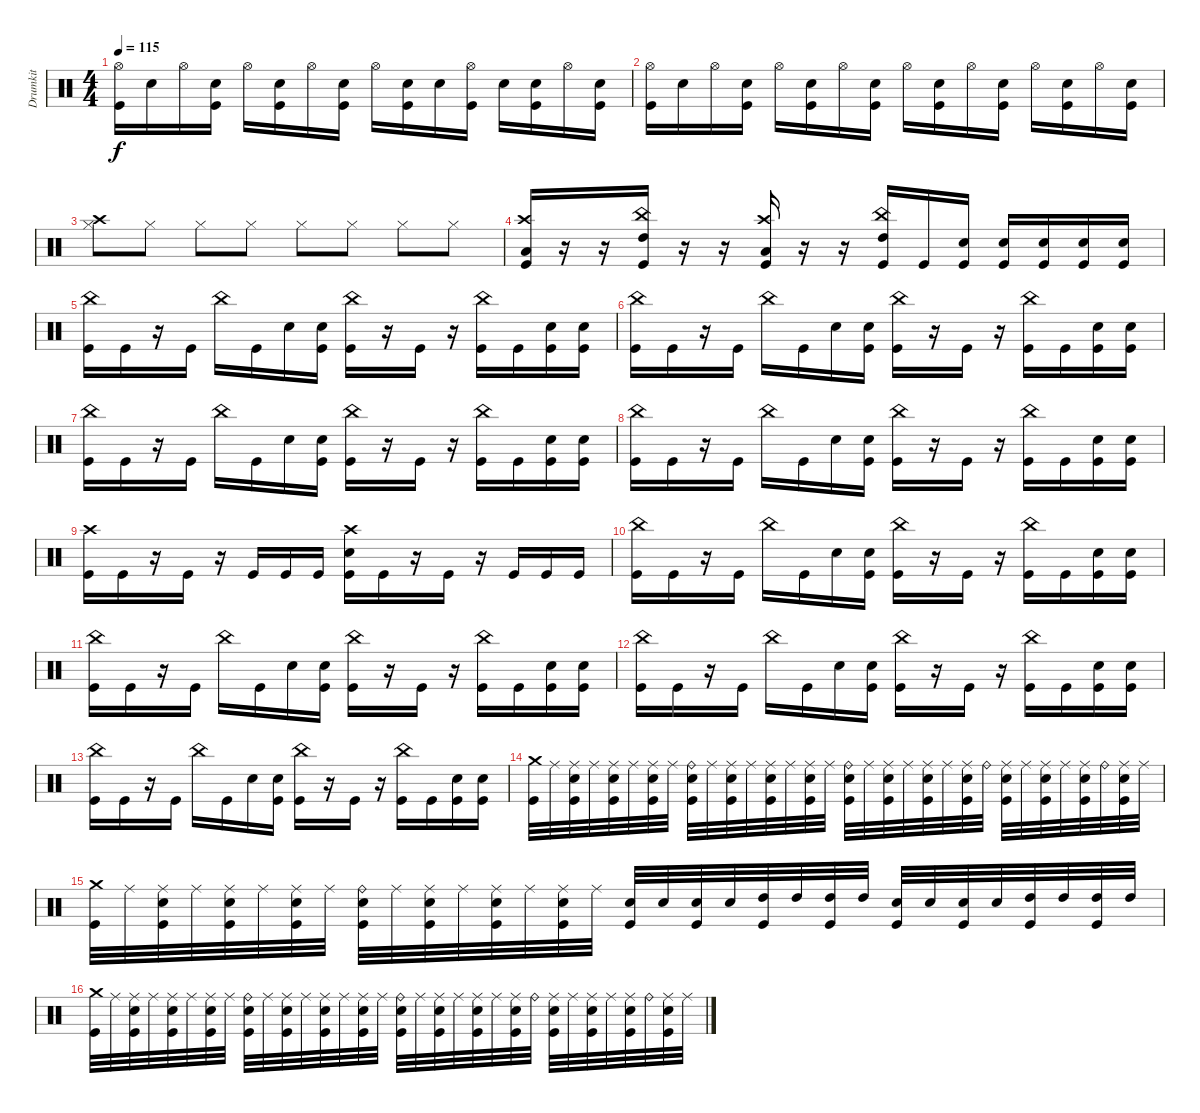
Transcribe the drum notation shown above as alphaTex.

\track ("Drumkit" "Drumkit") {instrument percussion}
\staff {score}
\articulation defaults
\ts (4 4)
\tempo 115
\clef neutral
\ks c
("Kick (hit)" "Hi-Hat (open)").16{dy f} "Snare (hit) 2".16 "Hi-Hat (open)".16 ("Kick (hit)" "Snare (hit) 2").16 "Hi-Hat (open)".16 ("Kick (hit)" "Snare (hit) 2").16 "Hi-Hat (open)".16 ("Kick (hit)" "Snare (hit) 2").16 "Hi-Hat (open)".16 ("Kick (hit)" "Snare (hit) 2").16 "Snare (hit) 2".16 ("Kick (hit)" "Hi-Hat (open)").16 "Snare (hit) 2".16 ("Kick (hit)" "Snare (hit) 2").16 "Hi-Hat (open)".16 ("Kick (hit)" "Snare (hit) 2").16 |
("Kick (hit)" "Hi-Hat (open)").16 "Snare (hit) 2".16 "Hi-Hat (open)".16 ("Kick (hit)" "Snare (hit) 2").16 "Hi-Hat (open)".16 ("Kick (hit)" "Snare (hit) 2").16 "Hi-Hat (open)".16 ("Kick (hit)" "Snare (hit) 2").16 "Hi-Hat (open)".16 ("Kick (hit)" "Snare (hit) 2").16 "Hi-Hat (open)".16 ("Kick (hit)" "Snare (hit) 2").16 "Hi-Hat (open)".16 ("Kick (hit)" "Snare (hit) 2").16 "Hi-Hat (open)".16 ("Kick (hit)" "Snare (hit) 2").16 |
("Hi-Hat (closed)" "Crash high (hit)").8 "Hi-Hat (closed)".8 "Hi-Hat (closed)".8 "Hi-Hat (closed)".8 "Hi-Hat (closed)".8 "Hi-Hat (closed)".8 "Hi-Hat (closed)".8 "Hi-Hat (closed)".8 |
("Kick (hit)" "Crash high (hit)" "Low Tom (hit)").16 r.16 r.16 ("Kick (hit)" "China (hit)" "High Tom (hit)").16 r.16 r.16 ("Kick (hit)" "Crash high (hit)" "Low Tom (hit)").16 r.16 r.16 ("Kick (hit)" "China (hit)" "High Tom (hit)").16 "Kick (hit)".16 ("Kick (hit)" "Snare (hit) 2").16 ("Kick (hit)" "Snare (hit) 2").16 ("Kick (hit)" "Snare (hit) 2").16 ("Kick (hit)" "Snare (hit) 2").16 ("Kick (hit)" "Snare (hit) 2").16 |
("Kick (hit)" "China (hit)").16 "Kick (hit)".16 r.16 "Kick (hit)".16 "China (hit)".16 "Kick (hit)".16 "Snare (hit) 2".16 ("Kick (hit)" "Snare (hit) 2").16 ("Kick (hit)" "China (hit)").16 r.16 "Kick (hit)".16 r.16 ("Kick (hit)" "China (hit)").16 "Kick (hit)".16 ("Kick (hit)" "Snare (hit) 2").16 ("Kick (hit)" "Snare (hit) 2").16 |
("Kick (hit)" "China (hit)").16 "Kick (hit)".16 r.16 "Kick (hit)".16 "China (hit)".16 "Kick (hit)".16 "Snare (hit) 2".16 ("Kick (hit)" "Snare (hit) 2").16 ("Kick (hit)" "China (hit)").16 r.16 "Kick (hit)".16 r.16 ("Kick (hit)" "China (hit)").16 "Kick (hit)".16 ("Kick (hit)" "Snare (hit) 2").16 ("Kick (hit)" "Snare (hit) 2").16 |
("Kick (hit)" "China (hit)").16 "Kick (hit)".16 r.16 "Kick (hit)".16 "China (hit)".16 "Kick (hit)".16 "Snare (hit) 2".16 ("Kick (hit)" "Snare (hit) 2").16 ("Kick (hit)" "China (hit)").16 r.16 "Kick (hit)".16 r.16 ("Kick (hit)" "China (hit)").16 "Kick (hit)".16 ("Kick (hit)" "Snare (hit) 2").16 ("Kick (hit)" "Snare (hit) 2").16 |
("Kick (hit)" "China (hit)").16 "Kick (hit)".16 r.16 "Kick (hit)".16 "China (hit)".16 "Kick (hit)".16 "Snare (hit) 2".16 ("Kick (hit)" "Snare (hit) 2").16 ("Kick (hit)" "China (hit)").16 r.16 "Kick (hit)".16 r.16 ("Kick (hit)" "China (hit)").16 "Kick (hit)".16 ("Kick (hit)" "Snare (hit) 2").16 ("Kick (hit)" "Snare (hit) 2").16 |
("Kick (hit)" "Crash high (hit)").16 "Kick (hit)".16 r.16 "Kick (hit)".16 r.16 "Kick (hit)".16 "Kick (hit)".16 "Kick (hit)".16 ("Kick (hit)" "Snare (hit) 2" "Crash high (hit)").16 "Kick (hit)".16 r.16 "Kick (hit)".16 r.16 "Kick (hit)".16 "Kick (hit)".16 "Kick (hit)".16 |
("Kick (hit)" "China (hit)").16 "Kick (hit)".16 r.16 "Kick (hit)".16 "China (hit)".16 "Kick (hit)".16 "Snare (hit) 2".16 ("Kick (hit)" "Snare (hit) 2").16 ("Kick (hit)" "China (hit)").16 r.16 "Kick (hit)".16 r.16 ("Kick (hit)" "China (hit)").16 "Kick (hit)".16 ("Kick (hit)" "Snare (hit) 2").16 ("Kick (hit)" "Snare (hit) 2").16 |
("Kick (hit)" "China (hit)").16 "Kick (hit)".16 r.16 "Kick (hit)".16 "China (hit)".16 "Kick (hit)".16 "Snare (hit) 2".16 ("Kick (hit)" "Snare (hit) 2").16 ("Kick (hit)" "China (hit)").16 r.16 "Kick (hit)".16 r.16 ("Kick (hit)" "China (hit)").16 "Kick (hit)".16 ("Kick (hit)" "Snare (hit) 2").16 ("Kick (hit)" "Snare (hit) 2").16 |
("Kick (hit)" "China (hit)").16 "Kick (hit)".16 r.16 "Kick (hit)".16 "China (hit)".16 "Kick (hit)".16 "Snare (hit) 2".16 ("Kick (hit)" "Snare (hit) 2").16 ("Kick (hit)" "China (hit)").16 r.16 "Kick (hit)".16 r.16 ("Kick (hit)" "China (hit)").16 "Kick (hit)".16 ("Kick (hit)" "Snare (hit) 2").16 ("Kick (hit)" "Snare (hit) 2").16 |
("Kick (hit)" "China (hit)").16 "Kick (hit)".16 r.16 "Kick (hit)".16 "China (hit)".16 "Kick (hit)".16 "Snare (hit) 2".16 ("Kick (hit)" "Snare (hit) 2").16 ("Kick (hit)" "China (hit)").16 r.16 "Kick (hit)".16 r.16 ("Kick (hit)" "China (hit)").16 "Kick (hit)".16 ("Kick (hit)" "Snare (hit) 2").16 ("Kick (hit)" "Snare (hit) 2").16 |
("Kick (hit)" "Crash medium (hit)").32 "Ride (middle)".32 ("Kick (hit)" "Snare (hit) 2" "Ride (middle)").32 "Ride (middle)".32 ("Kick (hit)" "Snare (hit) 2" "Ride (middle)").32 "Ride (middle)".32 ("Kick (hit)" "Snare (hit) 2" "Ride (middle)").32 "Ride (middle)".32 ("Kick (hit)" "Snare (hit) 2" "Ride (bell)").32 "Ride (middle)".32 ("Kick (hit)" "Snare (hit) 2" "Ride (middle)").32 "Ride (middle)".32 ("Kick (hit)" "Snare (hit) 2" "Ride (middle)").32 "Ride (middle)".32 ("Kick (hit)" "Snare (hit) 2" "Ride (middle)").32 "Ride (middle)".32 ("Kick (hit)" "Snare (hit) 2" "Ride (bell)").32 "Ride (middle)".32 ("Kick (hit)" "Snare (hit) 2" "Ride (middle)").32 "Ride (middle)".32 ("Kick (hit)" "Snare (hit) 2" "Ride (middle)").32 "Ride (middle)".32 ("Kick (hit)" "Snare (hit) 2" "Ride (middle)").32 "Ride (bell)".32 ("Kick (hit)" "Snare (hit) 2" "Ride (middle)").32 "Ride (middle)".32 ("Kick (hit)" "Snare (hit) 2" "Ride (middle)").32 "Ride (middle)".32 ("Kick (hit)" "Snare (hit) 2" "Ride (middle)").32 "Ride (bell)".32 ("Kick (hit)" "Snare (hit) 2" "Ride (middle)").32 "Ride (middle)".32 |
("Kick (hit)" "Crash medium (hit)").32 "Ride (middle)".32 ("Kick (hit)" "Snare (hit) 2" "Ride (middle)").32 "Ride (middle)".32 ("Kick (hit)" "Snare (hit) 2" "Ride (middle)").32 "Ride (middle)".32 ("Kick (hit)" "Snare (hit) 2" "Ride (middle)").32 "Ride (middle)".32 ("Kick (hit)" "Snare (hit) 2" "Ride (bell)").32 "Ride (middle)".32 ("Kick (hit)" "Snare (hit) 2" "Ride (middle)").32 "Ride (middle)".32 ("Kick (hit)" "Snare (hit) 2" "Ride (middle)").32 "Ride (middle)".32 ("Kick (hit)" "Snare (hit) 2" "Ride (middle)").32 "Ride (middle)".32 ("Kick (hit)" "Snare (hit) 2").32 "Snare (hit) 2".32 ("Kick (hit)" "Snare (hit) 2").32 "Snare (hit) 2".32 ("Kick (hit)" "High Tom (hit)").32 "High Tom (hit)".32 ("Kick (hit)" "High Tom (hit)").32 "High Tom (hit)".32 ("Kick (hit)" "Snare (hit) 2").32 "Snare (hit) 2".32 ("Kick (hit)" "Snare (hit) 2").32 "Snare (hit) 2".32 ("Kick (hit)" "High Tom (hit)").32 "High Tom (hit)".32 ("Kick (hit)" "High Tom (hit)").32 "High Tom (hit)".32 |
("Kick (hit)" "Crash medium (hit)").32 "Ride (middle)".32 ("Kick (hit)" "Snare (hit) 2" "Ride (middle)").32 "Ride (middle)".32 ("Kick (hit)" "Snare (hit) 2" "Ride (middle)").32 "Ride (middle)".32 ("Kick (hit)" "Snare (hit) 2" "Ride (middle)").32 "Ride (middle)".32 ("Kick (hit)" "Snare (hit) 2" "Ride (bell)").32 "Ride (middle)".32 ("Kick (hit)" "Snare (hit) 2" "Ride (middle)").32 "Ride (middle)".32 ("Kick (hit)" "Snare (hit) 2" "Ride (middle)").32 "Ride (middle)".32 ("Kick (hit)" "Snare (hit) 2" "Ride (middle)").32 "Ride (middle)".32 ("Kick (hit)" "Snare (hit) 2" "Ride (bell)").32 "Ride (middle)".32 ("Kick (hit)" "Snare (hit) 2" "Ride (middle)").32 "Ride (middle)".32 ("Kick (hit)" "Snare (hit) 2" "Ride (middle)").32 "Ride (middle)".32 ("Kick (hit)" "Snare (hit) 2" "Ride (middle)").32 "Ride (bell)".32 ("Kick (hit)" "Snare (hit) 2" "Ride (middle)").32 "Ride (middle)".32 ("Kick (hit)" "Snare (hit) 2" "Ride (middle)").32 "Ride (middle)".32 ("Kick (hit)" "Snare (hit) 2" "Ride (middle)").32 "Ride (bell)".32 ("Kick (hit)" "Snare (hit) 2" "Ride (middle)").32 "Ride (middle)".32
